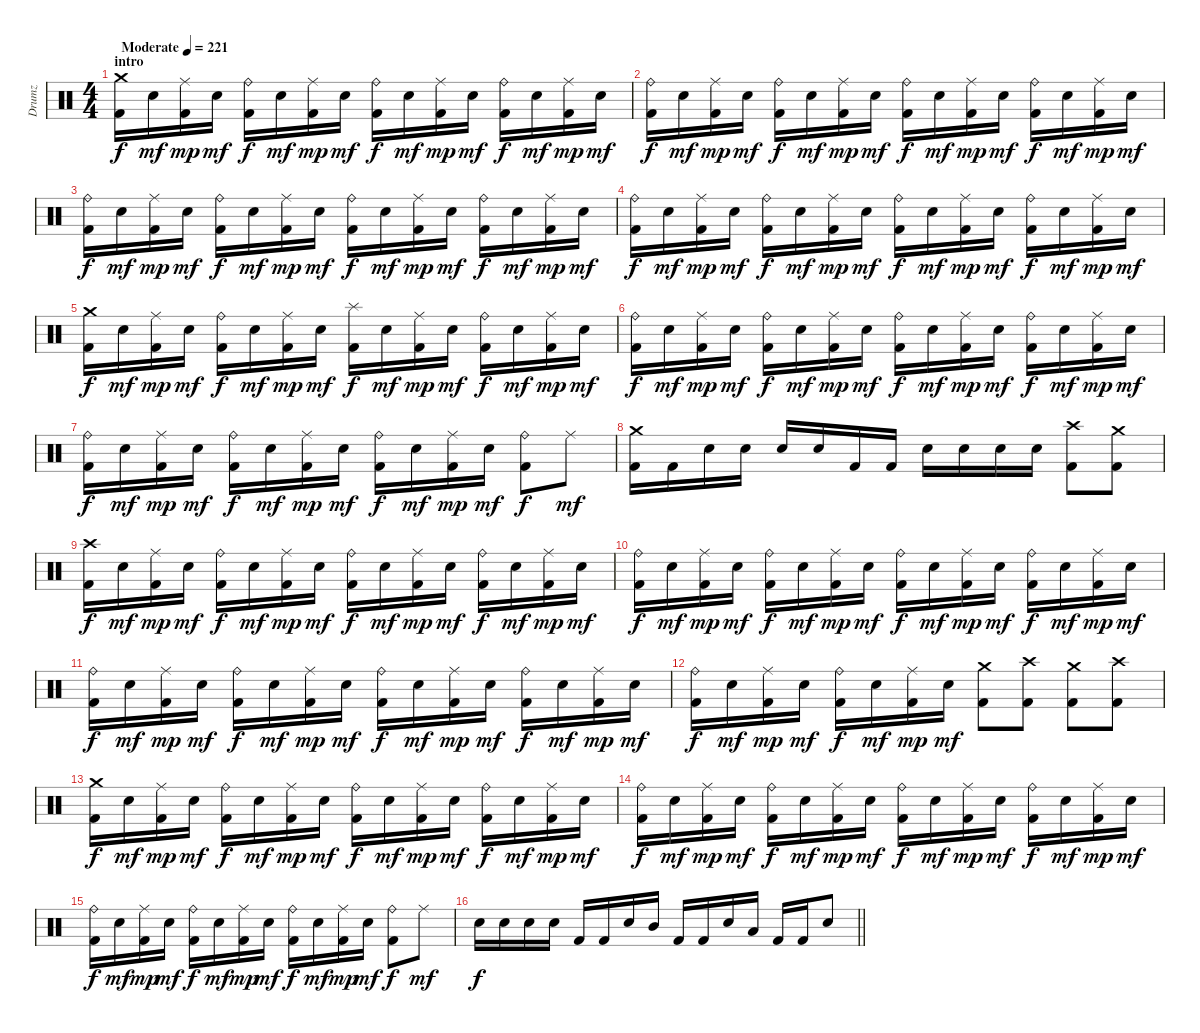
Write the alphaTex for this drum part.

\track ("Drumz" "Drumz") {instrument percussion}
\staff {score}
\articulation defaults
\ts (4 4)
\section ("" "intro")
\tempo (221 "Moderate")
\clef neutral
\ks c
("Crash medium (hit)" "Kick (hit) 2").16{dy f} "Electric Snare (hit)".16{dy mf} ("Ride (middle)" "Kick (hit) 2").16{dy mp} "Electric Snare (hit)".16{dy mf} ("Ride (bell)" "Kick (hit) 2").16{dy f} "Electric Snare (hit)".16{dy mf} ("Ride (middle)" "Kick (hit) 2").16{dy mp} "Electric Snare (hit)".16{dy mf} ("Ride (bell)" "Kick (hit) 2").16{dy f} "Electric Snare (hit)".16{dy mf} ("Ride (middle)" "Kick (hit) 2").16{dy mp} "Electric Snare (hit)".16{dy mf} ("Ride (bell)" "Kick (hit) 2").16{dy f} "Electric Snare (hit)".16{dy mf} ("Ride (middle)" "Kick (hit) 2").16{dy mp} "Electric Snare (hit)".16{dy mf} |
("Ride (bell)" "Kick (hit) 2").16{dy f} "Electric Snare (hit)".16{dy mf} ("Ride (middle)" "Kick (hit) 2").16{dy mp} "Electric Snare (hit)".16{dy mf} ("Ride (bell)" "Kick (hit) 2").16{dy f} "Electric Snare (hit)".16{dy mf} ("Ride (middle)" "Kick (hit) 2").16{dy mp} "Electric Snare (hit)".16{dy mf} ("Ride (bell)" "Kick (hit) 2").16{dy f} "Electric Snare (hit)".16{dy mf} ("Ride (middle)" "Kick (hit) 2").16{dy mp} "Electric Snare (hit)".16{dy mf} ("Ride (bell)" "Kick (hit) 2").16{dy f} "Electric Snare (hit)".16{dy mf} ("Ride (middle)" "Kick (hit) 2").16{dy mp} "Electric Snare (hit)".16{dy mf} |
("Ride (bell)" "Kick (hit) 2").16{dy f} "Electric Snare (hit)".16{dy mf} ("Ride (middle)" "Kick (hit) 2").16{dy mp} "Electric Snare (hit)".16{dy mf} ("Ride (bell)" "Kick (hit) 2").16{dy f} "Electric Snare (hit)".16{dy mf} ("Ride (middle)" "Kick (hit) 2").16{dy mp} "Electric Snare (hit)".16{dy mf} ("Ride (bell)" "Kick (hit) 2").16{dy f} "Electric Snare (hit)".16{dy mf} ("Ride (middle)" "Kick (hit) 2").16{dy mp} "Electric Snare (hit)".16{dy mf} ("Ride (bell)" "Kick (hit) 2").16{dy f} "Electric Snare (hit)".16{dy mf} ("Ride (middle)" "Kick (hit) 2").16{dy mp} "Electric Snare (hit)".16{dy mf} |
("Ride (bell)" "Kick (hit) 2").16{dy f} "Electric Snare (hit)".16{dy mf} ("Ride (middle)" "Kick (hit) 2").16{dy mp} "Electric Snare (hit)".16{dy mf} ("Ride (bell)" "Kick (hit) 2").16{dy f} "Electric Snare (hit)".16{dy mf} ("Ride (middle)" "Kick (hit) 2").16{dy mp} "Electric Snare (hit)".16{dy mf} ("Ride (bell)" "Kick (hit) 2").16{dy f} "Electric Snare (hit)".16{dy mf} ("Ride (middle)" "Kick (hit) 2").16{dy mp} "Electric Snare (hit)".16{dy mf} ("Ride (bell)" "Kick (hit) 2").16{dy f} "Electric Snare (hit)".16{dy mf} ("Ride (middle)" "Kick (hit) 2").16{dy mp} "Electric Snare (hit)".16{dy mf} |
("Crash medium (hit)" "Kick (hit) 2").16{dy f} "Electric Snare (hit)".16{dy mf} ("Ride (middle)" "Kick (hit) 2").16{dy mp} "Electric Snare (hit)".16{dy mf} ("Ride (bell)" "Kick (hit) 2").16{dy f} "Electric Snare (hit)".16{dy mf} ("Ride (middle)" "Kick (hit) 2").16{dy mp} "Electric Snare (hit)".16{dy mf} ("Splash (hit)" "Kick (hit) 2").16{dy f} "Electric Snare (hit)".16{dy mf} ("Ride (middle)" "Kick (hit) 2").16{dy mp} "Electric Snare (hit)".16{dy mf} ("Ride (bell)" "Kick (hit) 2").16{dy f} "Electric Snare (hit)".16{dy mf} ("Ride (middle)" "Kick (hit) 2").16{dy mp} "Electric Snare (hit)".16{dy mf} |
("Ride (bell)" "Kick (hit) 2").16{dy f} "Electric Snare (hit)".16{dy mf} ("Ride (middle)" "Kick (hit) 2").16{dy mp} "Electric Snare (hit)".16{dy mf} ("Ride (bell)" "Kick (hit) 2").16{dy f} "Electric Snare (hit)".16{dy mf} ("Ride (middle)" "Kick (hit) 2").16{dy mp} "Electric Snare (hit)".16{dy mf} ("Ride (bell)" "Kick (hit) 2").16{dy f} "Electric Snare (hit)".16{dy mf} ("Ride (middle)" "Kick (hit) 2").16{dy mp} "Electric Snare (hit)".16{dy mf} ("Ride (bell)" "Kick (hit) 2").16{dy f} "Electric Snare (hit)".16{dy mf} ("Ride (middle)" "Kick (hit) 2").16{dy mp} "Electric Snare (hit)".16{dy mf} |
("Ride (bell)" "Kick (hit) 2").16{dy f} "Electric Snare (hit)".16{dy mf} ("Ride (middle)" "Kick (hit) 2").16{dy mp} "Electric Snare (hit)".16{dy mf} ("Ride (bell)" "Kick (hit) 2").16{dy f} "Electric Snare (hit)".16{dy mf} ("Ride (middle)" "Kick (hit) 2").16{dy mp} "Electric Snare (hit)".16{dy mf} ("Ride (bell)" "Kick (hit) 2").16{dy f} "Electric Snare (hit)".16{dy mf} ("Ride (middle)" "Kick (hit) 2").16{dy mp} "Electric Snare (hit)".16{dy mf} ("Ride (bell)" "Kick (hit) 2").8{dy f} "Ride (middle)".8{dy mf} |
("Crash medium (hit)" "Kick (hit) 2").16 "Kick (hit) 2".16 "Electric Snare (hit)".16 "Electric Snare (hit)".16 "Electric Snare (hit)".16 "Electric Snare (hit)".16 "Kick (hit) 2".16 "Kick (hit) 2".16 "Electric Snare (hit)".16 "Electric Snare (hit)".16 "Electric Snare (hit)".16 "Electric Snare (hit)".16 ("Crash high (hit)" "Kick (hit) 2").8 ("Crash medium (hit)" "Kick (hit) 2").8 |
("Crash high (hit)" "Kick (hit) 2").16{dy f} "Electric Snare (hit)".16{dy mf} ("Ride (middle)" "Kick (hit) 2").16{dy mp} "Electric Snare (hit)".16{dy mf} ("Ride (bell)" "Kick (hit) 2").16{dy f} "Electric Snare (hit)".16{dy mf} ("Ride (middle)" "Kick (hit) 2").16{dy mp} "Electric Snare (hit)".16{dy mf} ("Ride (bell)" "Kick (hit) 2").16{dy f} "Electric Snare (hit)".16{dy mf} ("Ride (middle)" "Kick (hit) 2").16{dy mp} "Electric Snare (hit)".16{dy mf} ("Ride (bell)" "Kick (hit) 2").16{dy f} "Electric Snare (hit)".16{dy mf} ("Ride (middle)" "Kick (hit) 2").16{dy mp} "Electric Snare (hit)".16{dy mf} |
("Ride (bell)" "Kick (hit) 2").16{dy f} "Electric Snare (hit)".16{dy mf} ("Ride (middle)" "Kick (hit) 2").16{dy mp} "Electric Snare (hit)".16{dy mf} ("Ride (bell)" "Kick (hit) 2").16{dy f} "Electric Snare (hit)".16{dy mf} ("Ride (middle)" "Kick (hit) 2").16{dy mp} "Electric Snare (hit)".16{dy mf} ("Ride (bell)" "Kick (hit) 2").16{dy f} "Electric Snare (hit)".16{dy mf} ("Ride (middle)" "Kick (hit) 2").16{dy mp} "Electric Snare (hit)".16{dy mf} ("Ride (bell)" "Kick (hit) 2").16{dy f} "Electric Snare (hit)".16{dy mf} ("Ride (middle)" "Kick (hit) 2").16{dy mp} "Electric Snare (hit)".16{dy mf} |
("Ride (bell)" "Kick (hit) 2").16{dy f} "Electric Snare (hit)".16{dy mf} ("Ride (middle)" "Kick (hit) 2").16{dy mp} "Electric Snare (hit)".16{dy mf} ("Ride (bell)" "Kick (hit) 2").16{dy f} "Electric Snare (hit)".16{dy mf} ("Ride (middle)" "Kick (hit) 2").16{dy mp} "Electric Snare (hit)".16{dy mf} ("Ride (bell)" "Kick (hit) 2").16{dy f} "Electric Snare (hit)".16{dy mf} ("Ride (middle)" "Kick (hit) 2").16{dy mp} "Electric Snare (hit)".16{dy mf} ("Ride (bell)" "Kick (hit) 2").16{dy f} "Electric Snare (hit)".16{dy mf} ("Ride (middle)" "Kick (hit) 2").16{dy mp} "Electric Snare (hit)".16{dy mf} |
("Ride (bell)" "Kick (hit) 2").16{dy f} "Electric Snare (hit)".16{dy mf} ("Ride (middle)" "Kick (hit) 2").16{dy mp} "Electric Snare (hit)".16{dy mf} ("Ride (bell)" "Kick (hit) 2").16{dy f} "Electric Snare (hit)".16{dy mf} ("Ride (middle)" "Kick (hit) 2").16{dy mp} "Electric Snare (hit)".16{dy mf} ("Crash medium (hit)" "Kick (hit) 2").8 ("Crash high (hit)" "Kick (hit) 2").8 ("Crash medium (hit)" "Kick (hit) 2").8 ("Crash high (hit)" "Kick (hit) 2").8 |
("Crash medium (hit)" "Kick (hit) 2").16{dy f} "Electric Snare (hit)".16{dy mf} ("Ride (middle)" "Kick (hit) 2").16{dy mp} "Electric Snare (hit)".16{dy mf} ("Ride (bell)" "Kick (hit) 2").16{dy f} "Electric Snare (hit)".16{dy mf} ("Ride (middle)" "Kick (hit) 2").16{dy mp} "Electric Snare (hit)".16{dy mf} ("Ride (bell)" "Kick (hit) 2").16{dy f} "Electric Snare (hit)".16{dy mf} ("Ride (middle)" "Kick (hit) 2").16{dy mp} "Electric Snare (hit)".16{dy mf} ("Ride (bell)" "Kick (hit) 2").16{dy f} "Electric Snare (hit)".16{dy mf} ("Ride (middle)" "Kick (hit) 2").16{dy mp} "Electric Snare (hit)".16{dy mf} |
("Ride (bell)" "Kick (hit) 2").16{dy f} "Electric Snare (hit)".16{dy mf} ("Ride (middle)" "Kick (hit) 2").16{dy mp} "Electric Snare (hit)".16{dy mf} ("Ride (bell)" "Kick (hit) 2").16{dy f} "Electric Snare (hit)".16{dy mf} ("Ride (middle)" "Kick (hit) 2").16{dy mp} "Electric Snare (hit)".16{dy mf} ("Ride (bell)" "Kick (hit) 2").16{dy f} "Electric Snare (hit)".16{dy mf} ("Ride (middle)" "Kick (hit) 2").16{dy mp} "Electric Snare (hit)".16{dy mf} ("Ride (bell)" "Kick (hit) 2").16{dy f} "Electric Snare (hit)".16{dy mf} ("Ride (middle)" "Kick (hit) 2").16{dy mp} "Electric Snare (hit)".16{dy mf} |
("Ride (bell)" "Kick (hit) 2").16{dy f} "Electric Snare (hit)".16{dy mf} ("Ride (middle)" "Kick (hit) 2").16{dy mp} "Electric Snare (hit)".16{dy mf} ("Ride (bell)" "Kick (hit) 2").16{dy f} "Electric Snare (hit)".16{dy mf} ("Ride (middle)" "Kick (hit) 2").16{dy mp} "Electric Snare (hit)".16{dy mf} ("Ride (bell)" "Kick (hit) 2").16{dy f} "Electric Snare (hit)".16{dy mf} ("Ride (middle)" "Kick (hit) 2").16{dy mp} "Electric Snare (hit)".16{dy mf} ("Ride (bell)" "Kick (hit) 2").8{dy f} "Ride (middle)".8{dy mf} |
\barLineRight lightlight "Electric Snare (hit)".16{dy f} "Electric Snare (hit)".16 "Electric Snare (hit)".16 "Electric Snare (hit)".16 "Kick (hit) 2".16 "Kick (hit) 2".16 "Electric Snare (hit)".16 "Mid Tom (hit)".16 "Kick (hit) 2".16 "Kick (hit) 2".16 "Electric Snare (hit)".16 "Low Tom (hit)".16 "Kick (hit) 2".16 "Kick (hit) 2".16 "Electric Snare (hit)".8
